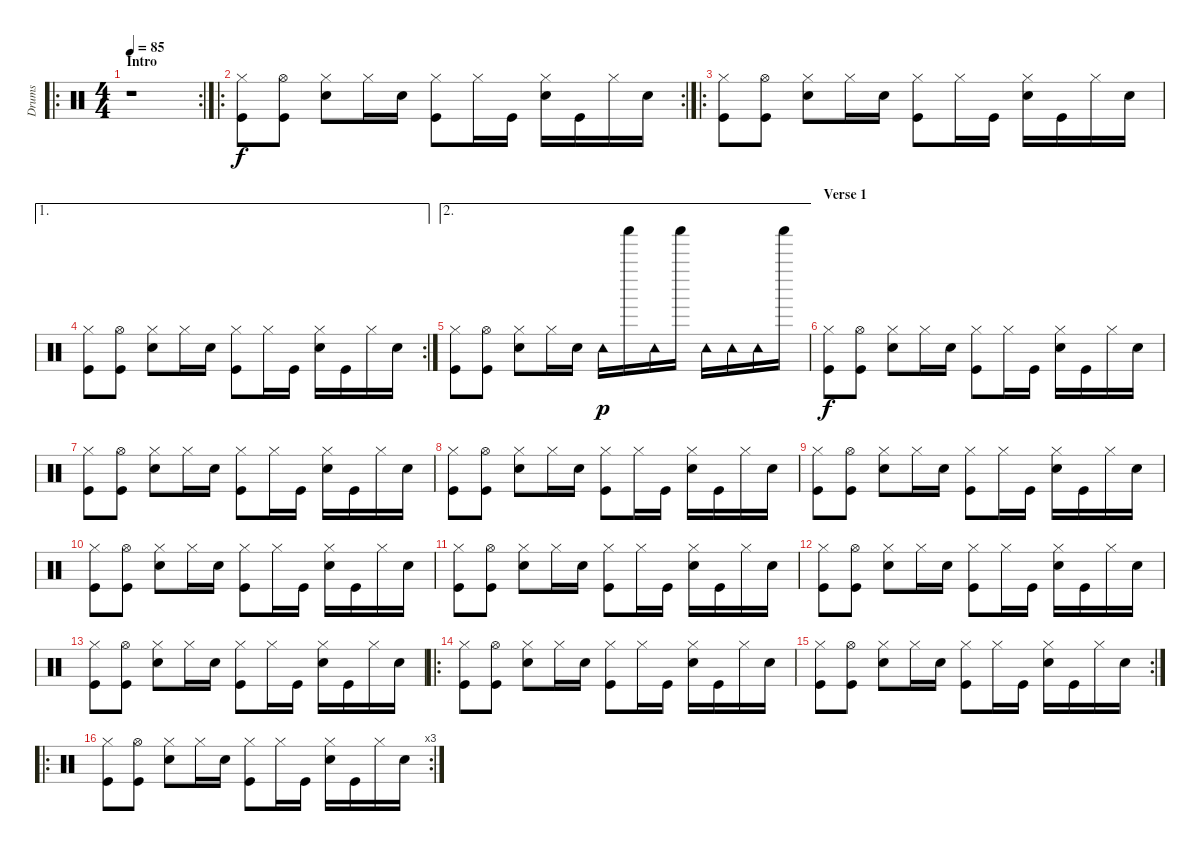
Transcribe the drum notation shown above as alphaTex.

\track ("Drums" "Drums") {instrument percussion}
\staff {score}
\articulation defaults
\ro
\rc 2
\ts (4 4)
\section ("" "Intro")
\tempo 85
\clef neutral
\ks c
r.1{dy f} |
\ro
\rc 2
("Hi-Hat (closed)" "Kick (hit)").8 ("Hi-Hat (open)" "Kick (hit)").8 ("Hi-Hat (closed)" "Snare (hit) 2").8 "Hi-Hat (closed)".16 "Snare (hit) 2".16 ("Hi-Hat (closed)" "Kick (hit)").8 "Hi-Hat (closed)".16 "Kick (hit)".16 ("Hi-Hat (closed)" "Snare (hit) 2").16 "Kick (hit)".16 "Hi-Hat (closed)".16 "Snare (hit) 2".16 |
\ro
("Hi-Hat (closed)" "Kick (hit)").8 ("Hi-Hat (open)" "Kick (hit)").8 ("Hi-Hat (closed)" "Snare (hit) 2").8 "Hi-Hat (closed)".16 "Snare (hit) 2".16 ("Hi-Hat (closed)" "Kick (hit)").8 "Hi-Hat (closed)".16 "Kick (hit)".16 ("Hi-Hat (closed)" "Snare (hit) 2").16 "Kick (hit)".16 "Hi-Hat (closed)".16 "Snare (hit) 2".16 |
\ae 1
\rc 2
("Hi-Hat (closed)" "Kick (hit)").8 ("Hi-Hat (open)" "Kick (hit)").8 ("Hi-Hat (closed)" "Snare (hit) 2").8 "Hi-Hat (closed)".16 "Snare (hit) 2".16 ("Hi-Hat (closed)" "Kick (hit)").8 "Hi-Hat (closed)".16 "Kick (hit)".16 ("Hi-Hat (closed)" "Snare (hit) 2").16 "Kick (hit)".16 "Hi-Hat (closed)".16 "Snare (hit) 2".16 |
\ae 2
("Hi-Hat (closed)" "Kick (hit)").8 ("Hi-Hat (open)" "Kick (hit)").8 ("Hi-Hat (closed)" "Snare (hit) 2").8 "Hi-Hat (closed)".16 "Snare (hit) 2".16 "Tambourine (hit)".16{dy p} "Shaker (hit)".16 "Tambourine (hit)".16 "Shaker (hit)".16 "Tambourine (hit)".16 "Tambourine (hit)".16 "Tambourine (hit)".16 "Shaker (hit)".16 |
\section ("" "Verse 1")
("Hi-Hat (closed)" "Kick (hit)").8{dy f} ("Hi-Hat (open)" "Kick (hit)").8 ("Hi-Hat (closed)" "Snare (hit) 2").8 "Hi-Hat (closed)".16 "Snare (hit) 2".16 ("Hi-Hat (closed)" "Kick (hit)").8 "Hi-Hat (closed)".16 "Kick (hit)".16 ("Hi-Hat (closed)" "Snare (hit) 2").16 "Kick (hit)".16 "Hi-Hat (closed)".16 "Snare (hit) 2".16 |
("Hi-Hat (closed)" "Kick (hit)").8 ("Hi-Hat (open)" "Kick (hit)").8 ("Hi-Hat (closed)" "Snare (hit) 2").8 "Hi-Hat (closed)".16 "Snare (hit) 2".16 ("Hi-Hat (closed)" "Kick (hit)").8 "Hi-Hat (closed)".16 "Kick (hit)".16 ("Hi-Hat (closed)" "Snare (hit) 2").16 "Kick (hit)".16 "Hi-Hat (closed)".16 "Snare (hit) 2".16 |
("Hi-Hat (closed)" "Kick (hit)").8 ("Hi-Hat (open)" "Kick (hit)").8 ("Hi-Hat (closed)" "Snare (hit) 2").8 "Hi-Hat (closed)".16 "Snare (hit) 2".16 ("Hi-Hat (closed)" "Kick (hit)").8 "Hi-Hat (closed)".16 "Kick (hit)".16 ("Hi-Hat (closed)" "Snare (hit) 2").16 "Kick (hit)".16 "Hi-Hat (closed)".16 "Snare (hit) 2".16 |
("Hi-Hat (closed)" "Kick (hit)").8 ("Hi-Hat (open)" "Kick (hit)").8 ("Hi-Hat (closed)" "Snare (hit) 2").8 "Hi-Hat (closed)".16 "Snare (hit) 2".16 ("Hi-Hat (closed)" "Kick (hit)").8 "Hi-Hat (closed)".16 "Kick (hit)".16 ("Hi-Hat (closed)" "Snare (hit) 2").16 "Kick (hit)".16 "Hi-Hat (closed)".16 "Snare (hit) 2".16 |
("Hi-Hat (closed)" "Kick (hit)").8 ("Hi-Hat (open)" "Kick (hit)").8 ("Hi-Hat (closed)" "Snare (hit) 2").8 "Hi-Hat (closed)".16 "Snare (hit) 2".16 ("Hi-Hat (closed)" "Kick (hit)").8 "Hi-Hat (closed)".16 "Kick (hit)".16 ("Hi-Hat (closed)" "Snare (hit) 2").16 "Kick (hit)".16 "Hi-Hat (closed)".16 "Snare (hit) 2".16 |
("Hi-Hat (closed)" "Kick (hit)").8 ("Hi-Hat (open)" "Kick (hit)").8 ("Hi-Hat (closed)" "Snare (hit) 2").8 "Hi-Hat (closed)".16 "Snare (hit) 2".16 ("Hi-Hat (closed)" "Kick (hit)").8 "Hi-Hat (closed)".16 "Kick (hit)".16 ("Hi-Hat (closed)" "Snare (hit) 2").16 "Kick (hit)".16 "Hi-Hat (closed)".16 "Snare (hit) 2".16 |
("Hi-Hat (closed)" "Kick (hit)").8 ("Hi-Hat (open)" "Kick (hit)").8 ("Hi-Hat (closed)" "Snare (hit) 2").8 "Hi-Hat (closed)".16 "Snare (hit) 2".16 ("Hi-Hat (closed)" "Kick (hit)").8 "Hi-Hat (closed)".16 "Kick (hit)".16 ("Hi-Hat (closed)" "Snare (hit) 2").16 "Kick (hit)".16 "Hi-Hat (closed)".16 "Snare (hit) 2".16 |
("Hi-Hat (closed)" "Kick (hit)").8 ("Hi-Hat (open)" "Kick (hit)").8 ("Hi-Hat (closed)" "Snare (hit) 2").8 "Hi-Hat (closed)".16 "Snare (hit) 2".16 ("Hi-Hat (closed)" "Kick (hit)").8 "Hi-Hat (closed)".16 "Kick (hit)".16 ("Hi-Hat (closed)" "Snare (hit) 2").16 "Kick (hit)".16 "Hi-Hat (closed)".16 "Snare (hit) 2".16 |
\ro
("Hi-Hat (closed)" "Kick (hit)").8 ("Hi-Hat (open)" "Kick (hit)").8 ("Hi-Hat (closed)" "Snare (hit) 2").8 "Hi-Hat (closed)".16 "Snare (hit) 2".16 ("Hi-Hat (closed)" "Kick (hit)").8 "Hi-Hat (closed)".16 "Kick (hit)".16 ("Hi-Hat (closed)" "Snare (hit) 2").16 "Kick (hit)".16 "Hi-Hat (closed)".16 "Snare (hit) 2".16 |
\rc 2
("Hi-Hat (closed)" "Kick (hit)").8 ("Hi-Hat (open)" "Kick (hit)").8 ("Hi-Hat (closed)" "Snare (hit) 2").8 "Hi-Hat (closed)".16 "Snare (hit) 2".16 ("Hi-Hat (closed)" "Kick (hit)").8 "Hi-Hat (closed)".16 "Kick (hit)".16 ("Hi-Hat (closed)" "Snare (hit) 2").16 "Kick (hit)".16 "Hi-Hat (closed)".16 "Snare (hit) 2".16 |
\ro
\rc 3
("Hi-Hat (closed)" "Kick (hit)").8 ("Hi-Hat (open)" "Kick (hit)").8 ("Hi-Hat (closed)" "Snare (hit) 2").8 "Hi-Hat (closed)".16 "Snare (hit) 2".16 ("Hi-Hat (closed)" "Kick (hit)").8 "Hi-Hat (closed)".16 "Kick (hit)".16 ("Hi-Hat (closed)" "Snare (hit) 2").16 "Kick (hit)".16 "Hi-Hat (closed)".16 "Snare (hit) 2".16
